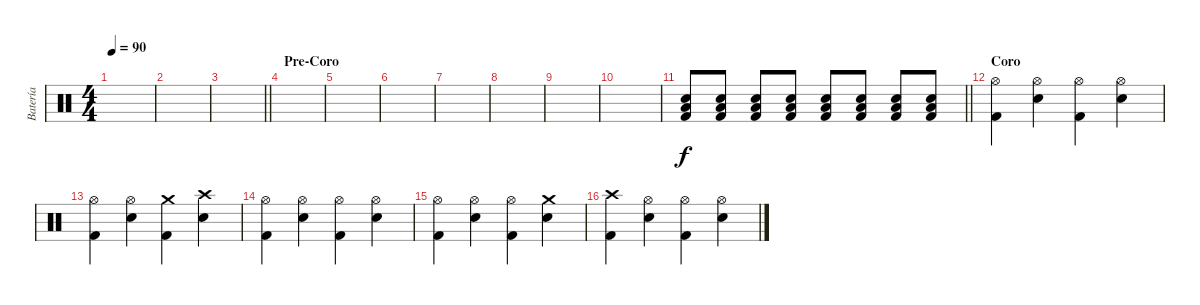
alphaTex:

\track ("Batería" "Batería") {instrument percussion}
\staff {score}
\articulation defaults
\ts (4 4)
\tempo 90
\clef neutral
\ks c
|
|
\barLineRight lightlight
|
\section ("" "Pre-Coro")
|
|
|
|
|
|
|
\barLineRight lightlight
("Low Floor Tom (hit)" "Snare (hit) 2" "Kick (hit) 2").8{volume 13} ("Low Floor Tom (hit)" "Snare (hit) 2" "Kick (hit) 2").8 ("Low Floor Tom (hit)" "Snare (hit) 2" "Kick (hit) 2").8 ("Low Floor Tom (hit)" "Snare (hit) 2" "Kick (hit) 2").8 ("Low Floor Tom (hit)" "Snare (hit) 2" "Kick (hit) 2").8 ("Low Floor Tom (hit)" "Snare (hit) 2" "Kick (hit) 2").8 ("Low Floor Tom (hit)" "Snare (hit) 2" "Kick (hit) 2").8 ("Low Floor Tom (hit)" "Snare (hit) 2" "Kick (hit) 2").8 |
\section ("" "Coro")
("Hi-Hat (open)" "Kick (hit) 2").4 ("Hi-Hat (open)" "Snare (hit) 2").4 ("Hi-Hat (open)" "Kick (hit) 2").4 ("Hi-Hat (open)" "Snare (hit) 2").4 |
("Hi-Hat (open)" "Kick (hit) 2").4 ("Hi-Hat (open)" "Snare (hit) 2").4 ("Crash medium (hit)" "Kick (hit) 2").4 ("Crash high (hit)" "Snare (hit) 2").4 |
("Hi-Hat (open)" "Kick (hit) 2").4 ("Hi-Hat (open)" "Snare (hit) 2").4 ("Hi-Hat (open)" "Kick (hit) 2").4 ("Hi-Hat (open)" "Snare (hit) 2").4 |
("Hi-Hat (open)" "Kick (hit) 2").4 ("Hi-Hat (open)" "Snare (hit) 2").4 ("Hi-Hat (open)" "Kick (hit) 2").4 ("Crash medium (hit)" "Snare (hit) 2").4 |
("Crash high (hit)" "Kick (hit) 2").4 ("Hi-Hat (open)" "Snare (hit) 2").4 ("Hi-Hat (open)" "Kick (hit) 2").4 ("Hi-Hat (open)" "Snare (hit) 2").4
